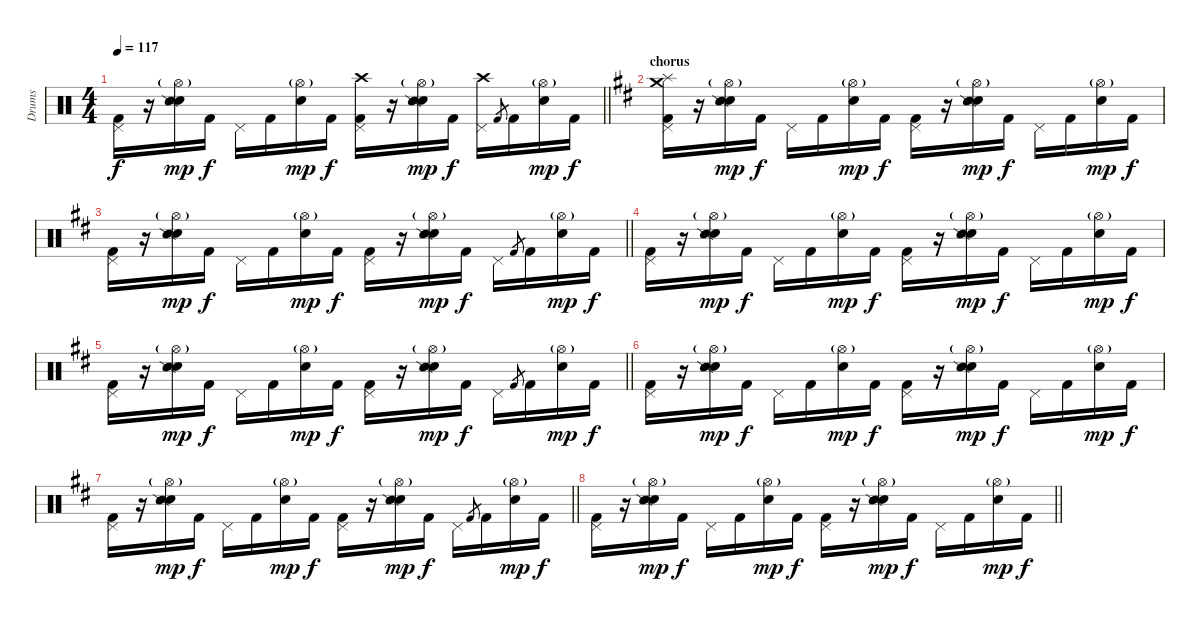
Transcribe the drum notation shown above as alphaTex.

\track ("Drums" "Drums") {instrument percussion}
\staff {score}
\articulation defaults
\ts (4 4)
\tempo 117
\clef neutral
\barLineRight lightlight
\ks c
("Pedal Hi-Hat (hit)" "Kick (hit) 2").16{dy f} r.16 ("Hi-Hat (open)"{g} "Electric Snare (hit)" "Snare (side stick) 2").16{dy mp} "Kick (hit) 2".16{dy f} "Pedal Hi-Hat (hit)".16 "Kick (hit) 2".16 ("Hi-Hat (open)"{g} "Electric Snare (hit)").16{dy mp} "Kick (hit) 2".16{dy f} ("Pedal Hi-Hat (hit)" "Crash high (hit)" "Kick (hit) 2").16 r.16 ("Hi-Hat (open)"{g} "Electric Snare (hit)" "Snare (side stick) 2").16{dy mp} "Kick (hit) 2".16{dy f} ("Pedal Hi-Hat (hit)" "Crash high (hit)").16 "Kick (hit) 2".8{gr} "Kick (hit) 2".16 ("Hi-Hat (open)"{g} "Electric Snare (hit)").16{dy mp} "Kick (hit) 2".16{dy f} |
\section ("" "chorus")
\ks d
("Pedal Hi-Hat (hit)" "Splash (hit)" "Crash medium (hit)" "Kick (hit) 2").16 r.16 ("Hi-Hat (open)"{g} "Electric Snare (hit)" "Snare (side stick) 2").16{dy mp} "Kick (hit) 2".16{dy f} "Pedal Hi-Hat (hit)".16 "Kick (hit) 2".16 ("Hi-Hat (open)"{g} "Electric Snare (hit)").16{dy mp} "Kick (hit) 2".16{dy f} ("Pedal Hi-Hat (hit)" "Kick (hit) 2").16 r.16 ("Hi-Hat (open)"{g} "Electric Snare (hit)" "Snare (side stick) 2").16{dy mp} "Kick (hit) 2".16{dy f} "Pedal Hi-Hat (hit)".16 "Kick (hit) 2".16 ("Hi-Hat (open)"{g} "Electric Snare (hit)").16{dy mp} "Kick (hit) 2".16{dy f} |
\barLineRight lightlight
("Pedal Hi-Hat (hit)" "Kick (hit) 2").16 r.16 ("Hi-Hat (open)"{g} "Electric Snare (hit)" "Snare (side stick) 2").16{dy mp} "Kick (hit) 2".16{dy f} "Pedal Hi-Hat (hit)".16 "Kick (hit) 2".16 ("Hi-Hat (open)"{g} "Electric Snare (hit)").16{dy mp} "Kick (hit) 2".16{dy f} ("Pedal Hi-Hat (hit)" "Kick (hit) 2").16 r.16 ("Hi-Hat (open)"{g} "Electric Snare (hit)" "Snare (side stick) 2").16{dy mp} "Kick (hit) 2".16{dy f} "Pedal Hi-Hat (hit)".16 "Kick (hit) 2".8{gr} "Kick (hit) 2".16 ("Hi-Hat (open)"{g} "Electric Snare (hit)").16{dy mp} "Kick (hit) 2".16{dy f} |
("Pedal Hi-Hat (hit)" "Kick (hit) 2").16 r.16 ("Hi-Hat (open)"{g} "Electric Snare (hit)" "Snare (side stick) 2").16{dy mp} "Kick (hit) 2".16{dy f} "Pedal Hi-Hat (hit)".16 "Kick (hit) 2".16 ("Hi-Hat (open)"{g} "Electric Snare (hit)").16{dy mp} "Kick (hit) 2".16{dy f} ("Pedal Hi-Hat (hit)" "Kick (hit) 2").16 r.16 ("Hi-Hat (open)"{g} "Electric Snare (hit)" "Snare (side stick) 2").16{dy mp} "Kick (hit) 2".16{dy f} "Pedal Hi-Hat (hit)".16 "Kick (hit) 2".16 ("Hi-Hat (open)"{g} "Electric Snare (hit)").16{dy mp} "Kick (hit) 2".16{dy f} |
\barLineRight lightlight
("Pedal Hi-Hat (hit)" "Kick (hit) 2").16 r.16 ("Hi-Hat (open)"{g} "Electric Snare (hit)" "Snare (side stick) 2").16{dy mp} "Kick (hit) 2".16{dy f} "Pedal Hi-Hat (hit)".16 "Kick (hit) 2".16 ("Hi-Hat (open)"{g} "Electric Snare (hit)").16{dy mp} "Kick (hit) 2".16{dy f} ("Pedal Hi-Hat (hit)" "Kick (hit) 2").16 r.16 ("Hi-Hat (open)"{g} "Electric Snare (hit)" "Snare (side stick) 2").16{dy mp} "Kick (hit) 2".16{dy f} "Pedal Hi-Hat (hit)".16 "Kick (hit) 2".8{gr} "Kick (hit) 2".16 ("Hi-Hat (open)"{g} "Electric Snare (hit)").16{dy mp} "Kick (hit) 2".16{dy f} |
("Pedal Hi-Hat (hit)" "Kick (hit) 2").16 r.16 ("Hi-Hat (open)"{g} "Electric Snare (hit)" "Snare (side stick) 2").16{dy mp} "Kick (hit) 2".16{dy f} "Pedal Hi-Hat (hit)".16 "Kick (hit) 2".16 ("Hi-Hat (open)"{g} "Electric Snare (hit)").16{dy mp} "Kick (hit) 2".16{dy f} ("Pedal Hi-Hat (hit)" "Kick (hit) 2").16 r.16 ("Hi-Hat (open)"{g} "Electric Snare (hit)" "Snare (side stick) 2").16{dy mp} "Kick (hit) 2".16{dy f} "Pedal Hi-Hat (hit)".16 "Kick (hit) 2".16 ("Hi-Hat (open)"{g} "Electric Snare (hit)").16{dy mp} "Kick (hit) 2".16{dy f} |
\barLineRight lightlight
("Pedal Hi-Hat (hit)" "Kick (hit) 2").16 r.16 ("Hi-Hat (open)"{g} "Electric Snare (hit)" "Snare (side stick) 2").16{dy mp} "Kick (hit) 2".16{dy f} "Pedal Hi-Hat (hit)".16 "Kick (hit) 2".16 ("Hi-Hat (open)"{g} "Electric Snare (hit)").16{dy mp} "Kick (hit) 2".16{dy f} ("Pedal Hi-Hat (hit)" "Kick (hit) 2").16 r.16 ("Hi-Hat (open)"{g} "Electric Snare (hit)" "Snare (side stick) 2").16{dy mp} "Kick (hit) 2".16{dy f} "Pedal Hi-Hat (hit)".16 "Kick (hit) 2".8{gr} "Kick (hit) 2".16 ("Hi-Hat (open)"{g} "Electric Snare (hit)").16{dy mp} "Kick (hit) 2".16{dy f} |
\barLineRight lightlight
("Pedal Hi-Hat (hit)" "Kick (hit) 2").16 r.16 ("Hi-Hat (open)"{g} "Electric Snare (hit)" "Snare (side stick) 2").16{dy mp} "Kick (hit) 2".16{dy f} "Pedal Hi-Hat (hit)".16 "Kick (hit) 2".16 ("Hi-Hat (open)"{g} "Electric Snare (hit)").16{dy mp} "Kick (hit) 2".16{dy f} ("Pedal Hi-Hat (hit)" "Kick (hit) 2").16 r.16 ("Hi-Hat (open)"{g} "Electric Snare (hit)" "Snare (side stick) 2").16{dy mp} "Kick (hit) 2".16{dy f} "Pedal Hi-Hat (hit)".16 "Kick (hit) 2".16 ("Hi-Hat (open)"{g} "Electric Snare (hit)").16{dy mp} "Kick (hit) 2".16{dy f}
